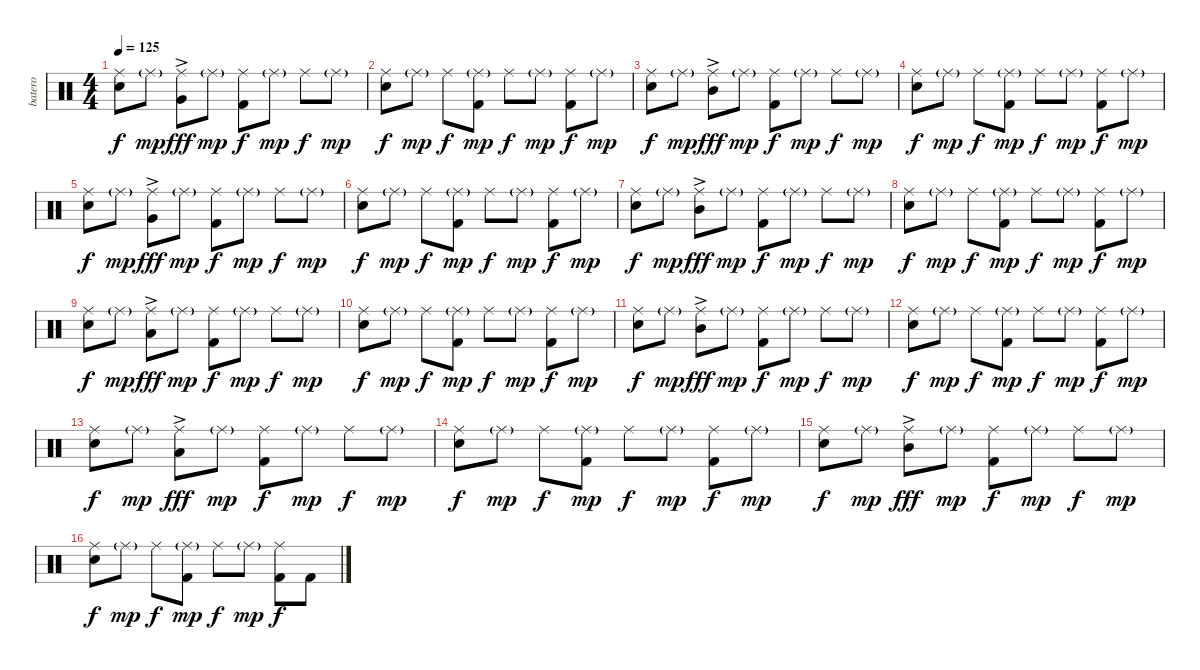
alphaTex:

\track ("batero" "batero") {instrument percussion}
\staff {score}
\articulation defaults
\ts (4 4)
\tempo 125
\clef neutral
\ks c
("Ride (middle)" "Snare (hit) 2").8{dy f} "Ride (middle)"{g}.8{dy mp} ("Ride (middle)" "Very Low Tom (hit)"{ac}).8{dy fff} "Ride (middle)"{g}.8{dy mp} ("Ride (middle)" "Kick (hit) 2").8{dy f} "Ride (middle)"{g}.8{dy mp} "Ride (middle)".8{dy f} "Ride (middle)"{g}.8{dy mp} |
("Ride (middle)" "Snare (hit) 2").8{dy f} "Ride (middle)"{g}.8{dy mp} "Ride (middle)".8{dy f} ("Ride (middle)"{g} "Kick (hit) 2").8{dy mp} "Ride (middle)".8{dy f} "Ride (middle)"{g}.8{dy mp} ("Ride (middle)" "Kick (hit) 2").8{dy f} "Ride (middle)"{g}.8{dy mp} |
("Ride (middle)" "Snare (hit) 2").8{dy f} "Ride (middle)"{g}.8{dy mp} ("Ride (middle)" "Mid Tom (hit)"{ac}).8{dy fff} "Ride (middle)"{g}.8{dy mp} ("Ride (middle)" "Kick (hit) 2").8{dy f} "Ride (middle)"{g}.8{dy mp} "Ride (middle)".8{dy f} "Ride (middle)"{g}.8{dy mp} |
("Ride (middle)" "Snare (hit) 2").8{dy f} "Ride (middle)"{g}.8{dy mp} "Ride (middle)".8{dy f} ("Ride (middle)"{g} "Kick (hit) 2").8{dy mp} "Ride (middle)".8{dy f} "Ride (middle)"{g}.8{dy mp} ("Ride (middle)" "Kick (hit) 2").8{dy f} "Ride (middle)"{g}.8{dy mp} |
("Ride (middle)" "Snare (hit) 2").8{dy f} "Ride (middle)"{g}.8{dy mp} ("Ride (middle)" "Very Low Tom (hit)"{ac}).8{dy fff} "Ride (middle)"{g}.8{dy mp} ("Ride (middle)" "Kick (hit) 2").8{dy f} "Ride (middle)"{g}.8{dy mp} "Ride (middle)".8{dy f} "Ride (middle)"{g}.8{dy mp} |
("Ride (middle)" "Snare (hit) 2").8{dy f} "Ride (middle)"{g}.8{dy mp} "Ride (middle)".8{dy f} ("Ride (middle)"{g} "Kick (hit) 2").8{dy mp} "Ride (middle)".8{dy f} "Ride (middle)"{g}.8{dy mp} ("Ride (middle)" "Kick (hit) 2").8{dy f} "Ride (middle)"{g}.8{dy mp} |
("Ride (middle)" "Snare (hit) 2").8{dy f} "Ride (middle)"{g}.8{dy mp} ("Ride (middle)" "Mid Tom (hit)"{ac}).8{dy fff} "Ride (middle)"{g}.8{dy mp} ("Ride (middle)" "Kick (hit) 2").8{dy f} "Ride (middle)"{g}.8{dy mp} "Ride (middle)".8{dy f} "Ride (middle)"{g}.8{dy mp} |
("Ride (middle)" "Snare (hit) 2").8{dy f} "Ride (middle)"{g}.8{dy mp} "Ride (middle)".8{dy f} ("Ride (middle)"{g} "Kick (hit) 2").8{dy mp} "Ride (middle)".8{dy f} "Ride (middle)"{g}.8{dy mp} ("Ride (middle)" "Kick (hit) 2").8{dy f} "Ride (middle)"{g}.8{dy mp} |
("Ride (middle)" "Snare (hit) 2").8{dy f} "Ride (middle)"{g}.8{dy mp} ("Ride (middle)" "Low Tom (hit)"{ac}).8{dy fff} "Ride (middle)"{g}.8{dy mp} ("Ride (middle)" "Kick (hit) 2").8{dy f} "Ride (middle)"{g}.8{dy mp} "Ride (middle)".8{dy f} "Ride (middle)"{g}.8{dy mp} |
("Ride (middle)" "Snare (hit) 2").8{dy f} "Ride (middle)"{g}.8{dy mp} "Ride (middle)".8{dy f} ("Ride (middle)"{g} "Kick (hit) 2").8{dy mp} "Ride (middle)".8{dy f} "Ride (middle)"{g}.8{dy mp} ("Ride (middle)" "Kick (hit) 2").8{dy f} "Ride (middle)"{g}.8{dy mp} |
("Ride (middle)" "Snare (hit) 2").8{dy f} "Ride (middle)"{g}.8{dy mp} ("Ride (middle)" "Mid Tom (hit)"{ac}).8{dy fff} "Ride (middle)"{g}.8{dy mp} ("Ride (middle)" "Kick (hit) 2").8{dy f} "Ride (middle)"{g}.8{dy mp} "Ride (middle)".8{dy f} "Ride (middle)"{g}.8{dy mp} |
("Ride (middle)" "Snare (hit) 2").8{dy f} "Ride (middle)"{g}.8{dy mp} "Ride (middle)".8{dy f} ("Ride (middle)"{g} "Kick (hit) 2").8{dy mp} "Ride (middle)".8{dy f} "Ride (middle)"{g}.8{dy mp} ("Ride (middle)" "Kick (hit) 2").8{dy f} "Ride (middle)"{g}.8{dy mp} |
("Ride (middle)" "Snare (hit) 2").8{dy f} "Ride (middle)"{g}.8{dy mp} ("Ride (middle)" "Low Floor Tom (hit)"{ac}).8{dy fff} "Ride (middle)"{g}.8{dy mp} ("Ride (middle)" "Kick (hit) 2").8{dy f} "Ride (middle)"{g}.8{dy mp} "Ride (middle)".8{dy f} "Ride (middle)"{g}.8{dy mp} |
("Ride (middle)" "Snare (hit) 2").8{dy f} "Ride (middle)"{g}.8{dy mp} "Ride (middle)".8{dy f} ("Ride (middle)"{g} "Kick (hit) 2").8{dy mp} "Ride (middle)".8{dy f} "Ride (middle)"{g}.8{dy mp} ("Ride (middle)" "Kick (hit) 2").8{dy f} "Ride (middle)"{g}.8{dy mp} |
("Ride (middle)" "Snare (hit) 2").8{dy f} "Ride (middle)"{g}.8{dy mp} ("Ride (middle)" "Mid Tom (hit)"{ac}).8{dy fff} "Ride (middle)"{g}.8{dy mp} ("Ride (middle)" "Kick (hit) 2").8{dy f} "Ride (middle)"{g}.8{dy mp} "Ride (middle)".8{dy f} "Ride (middle)"{g}.8{dy mp} |
("Ride (middle)" "Snare (hit) 2").8{dy f} "Ride (middle)"{g}.8{dy mp} "Ride (middle)".8{dy f} ("Ride (middle)"{g} "Kick (hit) 2").8{dy mp} "Ride (middle)".8{dy f} "Ride (middle)"{g}.8{dy mp} ("Ride (middle)" "Kick (hit) 2").8{dy f} "Kick (hit) 2".8
